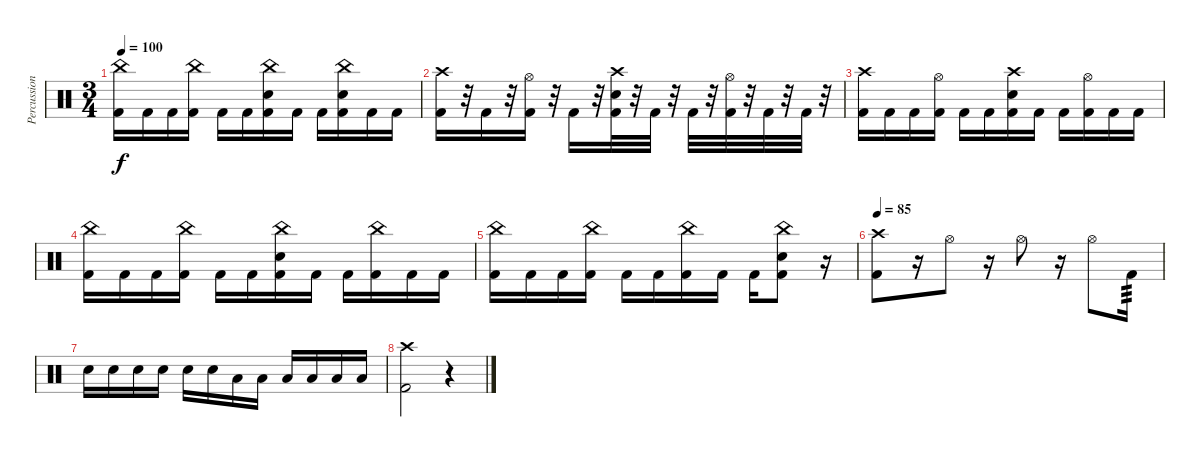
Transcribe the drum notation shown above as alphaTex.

\track ("Percussion" "Percussion") {instrument percussion}
\staff {score}
\articulation defaults
\ts (3 4)
\tempo 100
\clef neutral
\ks c
("China (hit)" "Kick (hit) 2").16{dy f} "Kick (hit) 2".16 "Kick (hit) 2".16 ("China (hit)" "Kick (hit) 2").16 "Kick (hit) 2".16 "Kick (hit) 2".16 ("China (hit)" "Electric Snare (hit)" "Kick (hit) 2").16 "Kick (hit) 2".16 "Kick (hit) 2".16 ("China (hit)" "Electric Snare (hit)" "Kick (hit) 2").16 "Kick (hit) 2".16 "Kick (hit) 2".16 |
("Crash high (hit)" "Kick (hit) 2").16 r.32 "Kick (hit) 2".16 r.32 ("Hi-Hat (open)" "Kick (hit) 2").16 r.32 "Kick (hit) 2".16 r.32 ("Crash high (hit)" "Electric Snare (hit)" "Kick (hit) 2").32 r.32 "Kick (hit) 2".32 r.32 "Kick (hit) 2".32 r.32 ("Hi-Hat (open)" "Kick (hit) 2").32 r.32 "Kick (hit) 2".32 r.32 "Kick (hit) 2".32 r.32 |
("Crash high (hit)" "Kick (hit) 2").16 "Kick (hit) 2".16 "Kick (hit) 2".16 ("Hi-Hat (open)" "Kick (hit) 2").16 "Kick (hit) 2".16 "Kick (hit) 2".16 ("Crash high (hit)" "Electric Snare (hit)" "Kick (hit) 2").16 "Kick (hit) 2".16 "Kick (hit) 2".16 ("Hi-Hat (open)" "Kick (hit) 2").16 "Kick (hit) 2".16 "Kick (hit) 2".16 |
("China (hit)" "Kick (hit) 2").16 "Kick (hit) 2".16 "Kick (hit) 2".16 ("China (hit)" "Kick (hit) 2").16 "Kick (hit) 2".16 "Kick (hit) 2".16 ("China (hit)" "Electric Snare (hit)" "Kick (hit) 2").16 "Kick (hit) 2".16 "Kick (hit) 2".16 ("China (hit)" "Kick (hit) 2").16 "Kick (hit) 2".16 "Kick (hit) 2".16 |
("China (hit)" "Kick (hit) 2").16 "Kick (hit) 2".16 "Kick (hit) 2".16 ("China (hit)" "Kick (hit) 2").16 "Kick (hit) 2".16 "Kick (hit) 2".16 ("China (hit)" "Kick (hit) 2").16 "Kick (hit) 2".16 "Kick (hit) 2".16 ("China (hit)" "Electric Snare (hit)" "Kick (hit) 2").8 r.16 |
\tempo 85
("Crash high (hit)" "Kick (hit) 2").8 r.16 "Hi-Hat (open)".8 r.16 "Hi-Hat (open)".8 r.16 "Hi-Hat (open)".8 "Kick (hit) 2".16{tp 3} |
"Electric Snare (hit)".16 "Electric Snare (hit)".16 "Electric Snare (hit)".16 "Electric Snare (hit)".16 "Electric Snare (hit)".16 "Electric Snare (hit)".16 "Low Floor Tom (hit)".16 "Low Floor Tom (hit)".16 "Low Floor Tom (hit)".16 "Low Floor Tom (hit)".16 "Low Floor Tom (hit)".16 "Low Floor Tom (hit)".16 |
("Crash high (hit)" "Kick (hit) 2").2 r.4
